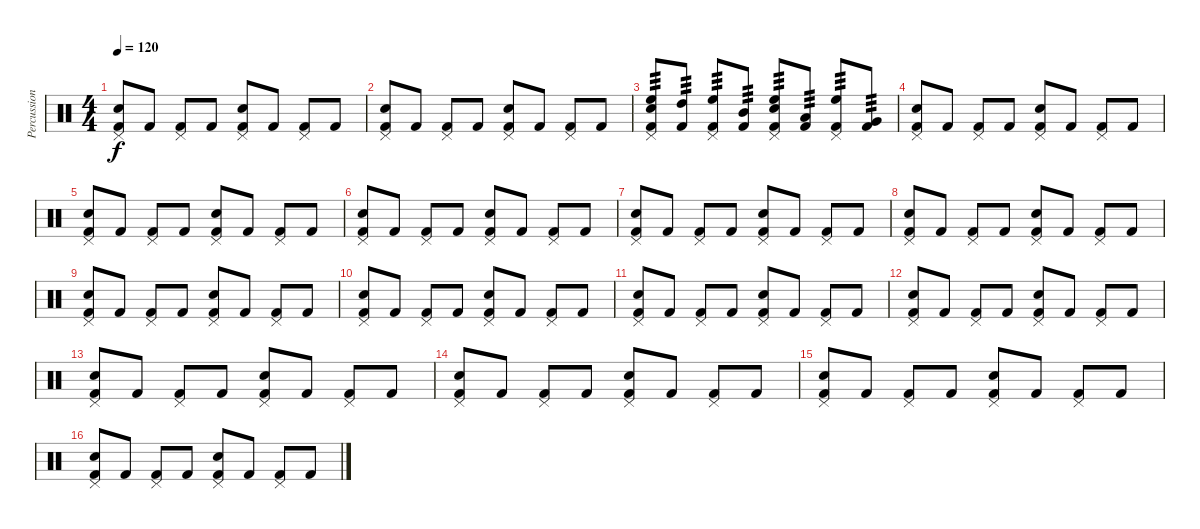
\track ("Percussions" "Percussion") {instrument percussion}
\staff {score}
\articulation defaults
\ts (4 4)
\tempo 120
\clef neutral
\ks c
("Pedal Hi-Hat (hit)" "Snare (hit) 2" "Kick (hit) 2").8{dy f} "Kick (hit) 2".8 ("Pedal Hi-Hat (hit)" "Kick (hit) 2").8 "Kick (hit) 2".8 ("Pedal Hi-Hat (hit)" "Snare (hit) 2" "Kick (hit) 2").8 "Kick (hit) 2".8 ("Pedal Hi-Hat (hit)" "Kick (hit) 2").8 "Kick (hit) 2".8 |
("Pedal Hi-Hat (hit)" "Snare (hit) 2" "Kick (hit) 2").8 "Kick (hit) 2".8 ("Pedal Hi-Hat (hit)" "Kick (hit) 2").8 "Kick (hit) 2".8 ("Pedal Hi-Hat (hit)" "Snare (hit) 2" "Kick (hit) 2").8 "Kick (hit) 2".8 ("Pedal Hi-Hat (hit)" "Kick (hit) 2").8 "Kick (hit) 2".8 |
("High Floor Tom (hit)" "Pedal Hi-Hat (hit)" "Snare (hit) 2" "Kick (hit) 2").8{tp 3} ("High Tom (hit)" "Kick (hit) 2").8{tp 3} ("High Floor Tom (hit)" "Pedal Hi-Hat (hit)" "Kick (hit) 2").8{tp 3} ("Mid Tom (hit)" "Kick (hit) 2").8{tp 3} ("High Floor Tom (hit)" "Pedal Hi-Hat (hit)" "Snare (hit) 2" "Kick (hit) 2").8{tp 3} ("Low Tom (hit)" "Kick (hit) 2").8{tp 3} ("High Floor Tom (hit)" "Pedal Hi-Hat (hit)" "Kick (hit) 2").8{tp 3} ("Very Low Tom (hit)" "Kick (hit) 2").8{tp 3} |
("Pedal Hi-Hat (hit)" "Snare (hit) 2" "Kick (hit) 2").8 "Kick (hit) 2".8 ("Pedal Hi-Hat (hit)" "Kick (hit) 2").8 "Kick (hit) 2".8 ("Pedal Hi-Hat (hit)" "Snare (hit) 2" "Kick (hit) 2").8 "Kick (hit) 2".8 ("Pedal Hi-Hat (hit)" "Kick (hit) 2").8 "Kick (hit) 2".8 |
("Pedal Hi-Hat (hit)" "Snare (hit) 2" "Kick (hit) 2").8 "Kick (hit) 2".8 ("Pedal Hi-Hat (hit)" "Kick (hit) 2").8 "Kick (hit) 2".8 ("Pedal Hi-Hat (hit)" "Snare (hit) 2" "Kick (hit) 2").8 "Kick (hit) 2".8 ("Pedal Hi-Hat (hit)" "Kick (hit) 2").8 "Kick (hit) 2".8 |
("Pedal Hi-Hat (hit)" "Snare (hit) 2" "Kick (hit) 2").8 "Kick (hit) 2".8 ("Pedal Hi-Hat (hit)" "Kick (hit) 2").8 "Kick (hit) 2".8 ("Pedal Hi-Hat (hit)" "Snare (hit) 2" "Kick (hit) 2").8 "Kick (hit) 2".8 ("Pedal Hi-Hat (hit)" "Kick (hit) 2").8 "Kick (hit) 2".8 |
("Pedal Hi-Hat (hit)" "Snare (hit) 2" "Kick (hit) 2").8 "Kick (hit) 2".8 ("Pedal Hi-Hat (hit)" "Kick (hit) 2").8 "Kick (hit) 2".8 ("Pedal Hi-Hat (hit)" "Snare (hit) 2" "Kick (hit) 2").8 "Kick (hit) 2".8 ("Pedal Hi-Hat (hit)" "Kick (hit) 2").8 "Kick (hit) 2".8 |
("Pedal Hi-Hat (hit)" "Snare (hit) 2" "Kick (hit) 2").8 "Kick (hit) 2".8 ("Pedal Hi-Hat (hit)" "Kick (hit) 2").8 "Kick (hit) 2".8 ("Pedal Hi-Hat (hit)" "Snare (hit) 2" "Kick (hit) 2").8 "Kick (hit) 2".8 ("Pedal Hi-Hat (hit)" "Kick (hit) 2").8 "Kick (hit) 2".8 |
("Pedal Hi-Hat (hit)" "Snare (hit) 2" "Kick (hit) 2").8 "Kick (hit) 2".8 ("Pedal Hi-Hat (hit)" "Kick (hit) 2").8 "Kick (hit) 2".8 ("Pedal Hi-Hat (hit)" "Snare (hit) 2" "Kick (hit) 2").8 "Kick (hit) 2".8 ("Pedal Hi-Hat (hit)" "Kick (hit) 2").8 "Kick (hit) 2".8 |
("Pedal Hi-Hat (hit)" "Snare (hit) 2" "Kick (hit) 2").8 "Kick (hit) 2".8 ("Pedal Hi-Hat (hit)" "Kick (hit) 2").8 "Kick (hit) 2".8 ("Pedal Hi-Hat (hit)" "Snare (hit) 2" "Kick (hit) 2").8 "Kick (hit) 2".8 ("Pedal Hi-Hat (hit)" "Kick (hit) 2").8 "Kick (hit) 2".8 |
("Pedal Hi-Hat (hit)" "Snare (hit) 2" "Kick (hit) 2").8 "Kick (hit) 2".8 ("Pedal Hi-Hat (hit)" "Kick (hit) 2").8 "Kick (hit) 2".8 ("Pedal Hi-Hat (hit)" "Snare (hit) 2" "Kick (hit) 2").8 "Kick (hit) 2".8 ("Pedal Hi-Hat (hit)" "Kick (hit) 2").8 "Kick (hit) 2".8 |
("Pedal Hi-Hat (hit)" "Snare (hit) 2" "Kick (hit) 2").8 "Kick (hit) 2".8 ("Pedal Hi-Hat (hit)" "Kick (hit) 2").8 "Kick (hit) 2".8 ("Pedal Hi-Hat (hit)" "Snare (hit) 2" "Kick (hit) 2").8 "Kick (hit) 2".8 ("Pedal Hi-Hat (hit)" "Kick (hit) 2").8 "Kick (hit) 2".8 |
("Pedal Hi-Hat (hit)" "Snare (hit) 2" "Kick (hit) 2").8 "Kick (hit) 2".8 ("Pedal Hi-Hat (hit)" "Kick (hit) 2").8 "Kick (hit) 2".8 ("Pedal Hi-Hat (hit)" "Snare (hit) 2" "Kick (hit) 2").8 "Kick (hit) 2".8 ("Pedal Hi-Hat (hit)" "Kick (hit) 2").8 "Kick (hit) 2".8 |
("Pedal Hi-Hat (hit)" "Snare (hit) 2" "Kick (hit) 2").8 "Kick (hit) 2".8 ("Pedal Hi-Hat (hit)" "Kick (hit) 2").8 "Kick (hit) 2".8 ("Pedal Hi-Hat (hit)" "Snare (hit) 2" "Kick (hit) 2").8 "Kick (hit) 2".8 ("Pedal Hi-Hat (hit)" "Kick (hit) 2").8 "Kick (hit) 2".8 |
("Pedal Hi-Hat (hit)" "Snare (hit) 2" "Kick (hit) 2").8 "Kick (hit) 2".8 ("Pedal Hi-Hat (hit)" "Kick (hit) 2").8 "Kick (hit) 2".8 ("Pedal Hi-Hat (hit)" "Snare (hit) 2" "Kick (hit) 2").8 "Kick (hit) 2".8 ("Pedal Hi-Hat (hit)" "Kick (hit) 2").8 "Kick (hit) 2".8 |
("Pedal Hi-Hat (hit)" "Snare (hit) 2" "Kick (hit) 2").8 "Kick (hit) 2".8 ("Pedal Hi-Hat (hit)" "Kick (hit) 2").8 "Kick (hit) 2".8 ("Pedal Hi-Hat (hit)" "Snare (hit) 2" "Kick (hit) 2").8 "Kick (hit) 2".8 ("Pedal Hi-Hat (hit)" "Kick (hit) 2").8 "Kick (hit) 2".8
